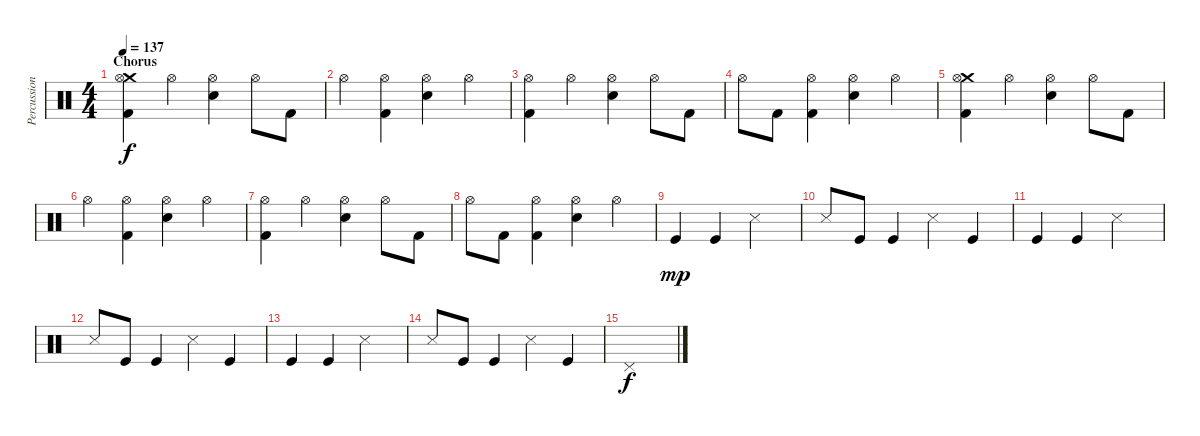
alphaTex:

\track ("Percussion" "Percussion") {instrument percussion}
\staff {score}
\articulation defaults
\ts (4 4)
\section ("" "Chorus")
\tempo 137
\clef neutral
\ks c
("Crash medium (hit)" "Hi-Hat (open)" "Kick (hit) 2").4{dy f} "Hi-Hat (open)".4 ("Hi-Hat (open)" "Electric Snare (hit)").4 "Hi-Hat (open)".8 "Kick (hit) 2".8 |
"Hi-Hat (open)".4 ("Hi-Hat (open)" "Kick (hit) 2").4 ("Hi-Hat (open)" "Electric Snare (hit)").4 "Hi-Hat (open)".4 |
("Hi-Hat (open)" "Kick (hit) 2").4 "Hi-Hat (open)".4 ("Hi-Hat (open)" "Electric Snare (hit)").4 "Hi-Hat (open)".8 "Kick (hit) 2".8 |
"Hi-Hat (open)".8 "Kick (hit) 2".8 ("Hi-Hat (open)" "Kick (hit) 2").4 ("Hi-Hat (open)" "Electric Snare (hit)").4 "Hi-Hat (open)".4 |
("Crash medium (hit)" "Hi-Hat (open)" "Kick (hit) 2").4 "Hi-Hat (open)".4 ("Hi-Hat (open)" "Electric Snare (hit)").4 "Hi-Hat (open)".8 "Kick (hit) 2".8 |
"Hi-Hat (open)".4 ("Hi-Hat (open)" "Kick (hit) 2").4 ("Hi-Hat (open)" "Electric Snare (hit)").4 "Hi-Hat (open)".4 |
("Hi-Hat (open)" "Kick (hit) 2").4 "Hi-Hat (open)".4 ("Hi-Hat (open)" "Electric Snare (hit)").4 "Hi-Hat (open)".8 "Kick (hit) 2".8 |
"Hi-Hat (open)".8 "Kick (hit) 2".8 ("Hi-Hat (open)" "Kick (hit) 2").4 ("Hi-Hat (open)" "Electric Snare (hit)").4 "Hi-Hat (open)".4 |
"Kick (hit)".4{dy mp} "Kick (hit)".4 "Snare (side stick) 3".2 |
"Snare (side stick) 3".8 "Kick (hit)".8 "Kick (hit)".4 "Snare (side stick) 3".4 "Kick (hit)".4 |
"Kick (hit)".4 "Kick (hit)".4 "Snare (side stick) 3".2 |
"Snare (side stick) 3".8 "Kick (hit)".8 "Kick (hit)".4 "Snare (side stick) 3".4 "Kick (hit)".4 |
"Kick (hit)".4 "Kick (hit)".4 "Snare (side stick) 3".2 |
"Snare (side stick) 3".8 "Kick (hit)".8 "Kick (hit)".4 "Snare (side stick) 3".4 "Kick (hit)".4 |
"Pedal Hi-Hat (hit)".1{dy f}
